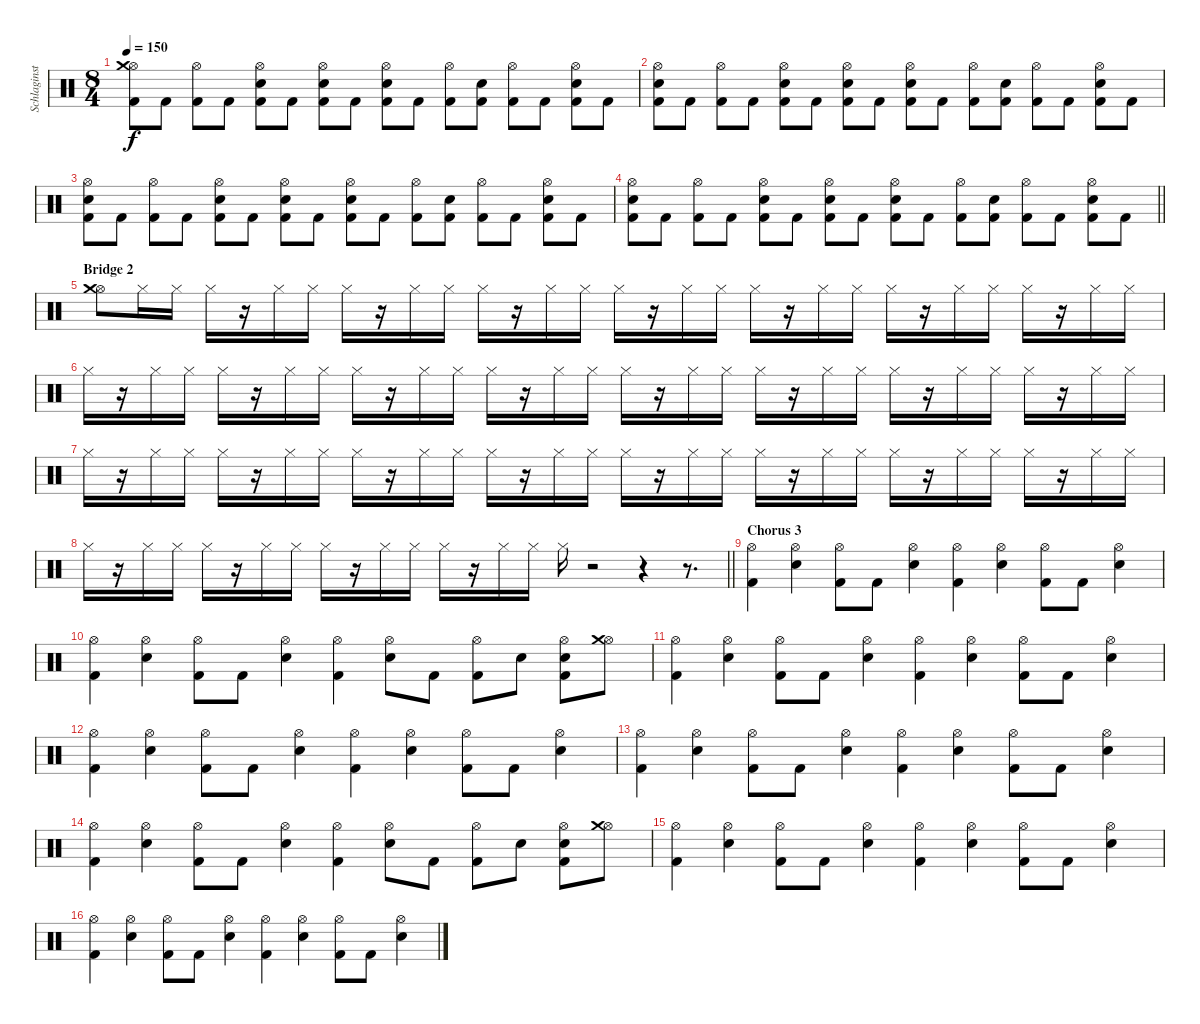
\track ("Schlaginstrumente - Auswahl" "Schlaginst") {instrument percussion}
\staff {score}
\articulation defaults
\ts (8 4)
\tempo 150
\clef neutral
\ks c
("Hi-Hat (open)" "Crash medium (hit)" "Kick (hit) 2").8{dy f} "Kick (hit) 2".8 ("Hi-Hat (open)" "Kick (hit) 2").8 "Kick (hit) 2".8 ("Electric Snare (hit)" "Hi-Hat (open)" "Kick (hit) 2").8 "Kick (hit) 2".8 ("Electric Snare (hit)" "Hi-Hat (open)" "Kick (hit) 2").8 "Kick (hit) 2".8 ("Electric Snare (hit)" "Hi-Hat (open)" "Kick (hit) 2").8 "Kick (hit) 2".8 ("Hi-Hat (open)" "Kick (hit) 2").8 ("Electric Snare (hit)" "Kick (hit) 2").8 ("Hi-Hat (open)" "Kick (hit) 2").8 "Kick (hit) 2".8 ("Electric Snare (hit)" "Hi-Hat (open)" "Kick (hit) 2").8 "Kick (hit) 2".8 |
("Electric Snare (hit)" "Hi-Hat (open)" "Kick (hit) 2").8 "Kick (hit) 2".8 ("Hi-Hat (open)" "Kick (hit) 2").8 "Kick (hit) 2".8 ("Electric Snare (hit)" "Hi-Hat (open)" "Kick (hit) 2").8 "Kick (hit) 2".8 ("Electric Snare (hit)" "Hi-Hat (open)" "Kick (hit) 2").8 "Kick (hit) 2".8 ("Electric Snare (hit)" "Hi-Hat (open)" "Kick (hit) 2").8 "Kick (hit) 2".8 ("Hi-Hat (open)" "Kick (hit) 2").8 ("Electric Snare (hit)" "Kick (hit) 2").8 ("Hi-Hat (open)" "Kick (hit) 2").8 "Kick (hit) 2".8 ("Electric Snare (hit)" "Hi-Hat (open)" "Kick (hit) 2").8 "Kick (hit) 2".8 |
("Electric Snare (hit)" "Hi-Hat (open)" "Kick (hit) 2").8 "Kick (hit) 2".8 ("Hi-Hat (open)" "Kick (hit) 2").8 "Kick (hit) 2".8 ("Electric Snare (hit)" "Hi-Hat (open)" "Kick (hit) 2").8 "Kick (hit) 2".8 ("Electric Snare (hit)" "Hi-Hat (open)" "Kick (hit) 2").8 "Kick (hit) 2".8 ("Electric Snare (hit)" "Hi-Hat (open)" "Kick (hit) 2").8 "Kick (hit) 2".8 ("Hi-Hat (open)" "Kick (hit) 2").8 ("Electric Snare (hit)" "Kick (hit) 2").8 ("Hi-Hat (open)" "Kick (hit) 2").8 "Kick (hit) 2".8 ("Electric Snare (hit)" "Hi-Hat (open)" "Kick (hit) 2").8 "Kick (hit) 2".8 |
\barLineRight lightlight
("Electric Snare (hit)" "Hi-Hat (open)" "Kick (hit) 2").8 "Kick (hit) 2".8 ("Hi-Hat (open)" "Kick (hit) 2").8 "Kick (hit) 2".8 ("Electric Snare (hit)" "Hi-Hat (open)" "Kick (hit) 2").8 "Kick (hit) 2".8 ("Electric Snare (hit)" "Hi-Hat (open)" "Kick (hit) 2").8 "Kick (hit) 2".8 ("Electric Snare (hit)" "Hi-Hat (open)" "Kick (hit) 2").8 "Kick (hit) 2".8 ("Hi-Hat (open)" "Kick (hit) 2").8 ("Electric Snare (hit)" "Kick (hit) 2").8 ("Hi-Hat (open)" "Kick (hit) 2").8 "Kick (hit) 2".8 ("Electric Snare (hit)" "Hi-Hat (open)" "Kick (hit) 2").8 "Kick (hit) 2".8 |
\section ("" "Bridge 2")
("Hi-Hat (open)" "Crash medium (hit)").8 "Hi-Hat (closed)".16 "Hi-Hat (closed)".16 "Hi-Hat (closed)".16 r.16 "Hi-Hat (closed)".16 "Hi-Hat (closed)".16 "Hi-Hat (closed)".16 r.16 "Hi-Hat (closed)".16 "Hi-Hat (closed)".16 "Hi-Hat (closed)".16 r.16 "Hi-Hat (closed)".16 "Hi-Hat (closed)".16 "Hi-Hat (closed)".16 r.16 "Hi-Hat (closed)".16 "Hi-Hat (closed)".16 "Hi-Hat (closed)".16 r.16 "Hi-Hat (closed)".16 "Hi-Hat (closed)".16 "Hi-Hat (closed)".16 r.16 "Hi-Hat (closed)".16 "Hi-Hat (closed)".16 "Hi-Hat (closed)".16 r.16 "Hi-Hat (closed)".16 "Hi-Hat (closed)".16 |
"Hi-Hat (closed)".16 r.16 "Hi-Hat (closed)".16 "Hi-Hat (closed)".16 "Hi-Hat (closed)".16 r.16 "Hi-Hat (closed)".16 "Hi-Hat (closed)".16 "Hi-Hat (closed)".16 r.16 "Hi-Hat (closed)".16 "Hi-Hat (closed)".16 "Hi-Hat (closed)".16 r.16 "Hi-Hat (closed)".16 "Hi-Hat (closed)".16 "Hi-Hat (closed)".16 r.16 "Hi-Hat (closed)".16 "Hi-Hat (closed)".16 "Hi-Hat (closed)".16 r.16 "Hi-Hat (closed)".16 "Hi-Hat (closed)".16 "Hi-Hat (closed)".16 r.16 "Hi-Hat (closed)".16 "Hi-Hat (closed)".16 "Hi-Hat (closed)".16 r.16 "Hi-Hat (closed)".16 "Hi-Hat (closed)".16 |
"Hi-Hat (closed)".16 r.16 "Hi-Hat (closed)".16 "Hi-Hat (closed)".16 "Hi-Hat (closed)".16 r.16 "Hi-Hat (closed)".16 "Hi-Hat (closed)".16 "Hi-Hat (closed)".16 r.16 "Hi-Hat (closed)".16 "Hi-Hat (closed)".16 "Hi-Hat (closed)".16 r.16 "Hi-Hat (closed)".16 "Hi-Hat (closed)".16 "Hi-Hat (closed)".16 r.16 "Hi-Hat (closed)".16 "Hi-Hat (closed)".16 "Hi-Hat (closed)".16 r.16 "Hi-Hat (closed)".16 "Hi-Hat (closed)".16 "Hi-Hat (closed)".16 r.16 "Hi-Hat (closed)".16 "Hi-Hat (closed)".16 "Hi-Hat (closed)".16 r.16 "Hi-Hat (closed)".16 "Hi-Hat (closed)".16 |
\barLineRight lightlight "Hi-Hat (closed)".16
r.16 "Hi-Hat (closed)".16 "Hi-Hat (closed)".16 "Hi-Hat (closed)".16 r.16 "Hi-Hat (closed)".16 "Hi-Hat (closed)".16 "Hi-Hat (closed)".16 r.16 "Hi-Hat (closed)".16 "Hi-Hat (closed)".16 "Hi-Hat (closed)".16 r.16 "Hi-Hat (closed)".16 "Hi-Hat (closed)".16 "Hi-Hat (closed)".16 r.2 r.4 r.8{d} |
\section ("" "Chorus 3")
("Hi-Hat (open)" "Kick (hit) 2").4 ("Hi-Hat (open)" "Electric Snare (hit)").4 ("Hi-Hat (open)" "Kick (hit) 2").8 "Kick (hit) 2".8 ("Hi-Hat (open)" "Electric Snare (hit)").4 ("Hi-Hat (open)" "Kick (hit) 2").4 ("Hi-Hat (open)" "Electric Snare (hit)").4 ("Hi-Hat (open)" "Kick (hit) 2").8 "Kick (hit) 2".8 ("Hi-Hat (open)" "Electric Snare (hit)").4 |
("Hi-Hat (open)" "Kick (hit) 2").4 ("Hi-Hat (open)" "Electric Snare (hit)").4 ("Hi-Hat (open)" "Kick (hit) 2").8 "Kick (hit) 2".8 ("Hi-Hat (open)" "Electric Snare (hit)").4 ("Hi-Hat (open)" "Kick (hit) 2").4 ("Hi-Hat (open)" "Electric Snare (hit)").8 "Kick (hit) 2".8 ("Hi-Hat (open)" "Kick (hit) 2").8 "Electric Snare (hit)".8 ("Hi-Hat (open)" "Electric Snare (hit)" "Kick (hit) 2").8 ("Hi-Hat (open)" "Crash medium (hit)").8 |
("Hi-Hat (open)" "Kick (hit) 2").4 ("Hi-Hat (open)" "Electric Snare (hit)").4 ("Hi-Hat (open)" "Kick (hit) 2").8 "Kick (hit) 2".8 ("Hi-Hat (open)" "Electric Snare (hit)").4 ("Hi-Hat (open)" "Kick (hit) 2").4 ("Hi-Hat (open)" "Electric Snare (hit)").4 ("Hi-Hat (open)" "Kick (hit) 2").8 "Kick (hit) 2".8 ("Hi-Hat (open)" "Electric Snare (hit)").4 |
("Hi-Hat (open)" "Kick (hit) 2").4 ("Hi-Hat (open)" "Electric Snare (hit)").4 ("Hi-Hat (open)" "Kick (hit) 2").8 "Kick (hit) 2".8 ("Hi-Hat (open)" "Electric Snare (hit)").4 ("Hi-Hat (open)" "Kick (hit) 2").4 ("Hi-Hat (open)" "Electric Snare (hit)").4 ("Hi-Hat (open)" "Kick (hit) 2").8 "Kick (hit) 2".8 ("Hi-Hat (open)" "Electric Snare (hit)").4 |
("Hi-Hat (open)" "Kick (hit) 2").4 ("Hi-Hat (open)" "Electric Snare (hit)").4 ("Hi-Hat (open)" "Kick (hit) 2").8 "Kick (hit) 2".8 ("Hi-Hat (open)" "Electric Snare (hit)").4 ("Hi-Hat (open)" "Kick (hit) 2").4 ("Hi-Hat (open)" "Electric Snare (hit)").4 ("Hi-Hat (open)" "Kick (hit) 2").8 "Kick (hit) 2".8 ("Hi-Hat (open)" "Electric Snare (hit)").4 |
("Hi-Hat (open)" "Kick (hit) 2").4 ("Hi-Hat (open)" "Electric Snare (hit)").4 ("Hi-Hat (open)" "Kick (hit) 2").8 "Kick (hit) 2".8 ("Hi-Hat (open)" "Electric Snare (hit)").4 ("Hi-Hat (open)" "Kick (hit) 2").4 ("Hi-Hat (open)" "Electric Snare (hit)").8 "Kick (hit) 2".8 ("Hi-Hat (open)" "Kick (hit) 2").8 "Electric Snare (hit)".8 ("Hi-Hat (open)" "Electric Snare (hit)" "Kick (hit) 2").8 ("Hi-Hat (open)" "Crash medium (hit)").8 |
("Hi-Hat (open)" "Kick (hit) 2").4 ("Hi-Hat (open)" "Electric Snare (hit)").4 ("Hi-Hat (open)" "Kick (hit) 2").8 "Kick (hit) 2".8 ("Hi-Hat (open)" "Electric Snare (hit)").4 ("Hi-Hat (open)" "Kick (hit) 2").4 ("Hi-Hat (open)" "Electric Snare (hit)").4 ("Hi-Hat (open)" "Kick (hit) 2").8 "Kick (hit) 2".8 ("Hi-Hat (open)" "Electric Snare (hit)").4 |
("Hi-Hat (open)" "Kick (hit) 2").4 ("Hi-Hat (open)" "Electric Snare (hit)").4 ("Hi-Hat (open)" "Kick (hit) 2").8 "Kick (hit) 2".8 ("Hi-Hat (open)" "Electric Snare (hit)").4 ("Hi-Hat (open)" "Kick (hit) 2").4 ("Hi-Hat (open)" "Electric Snare (hit)").4 ("Hi-Hat (open)" "Kick (hit) 2").8 "Kick (hit) 2".8 ("Hi-Hat (open)" "Electric Snare (hit)").4
